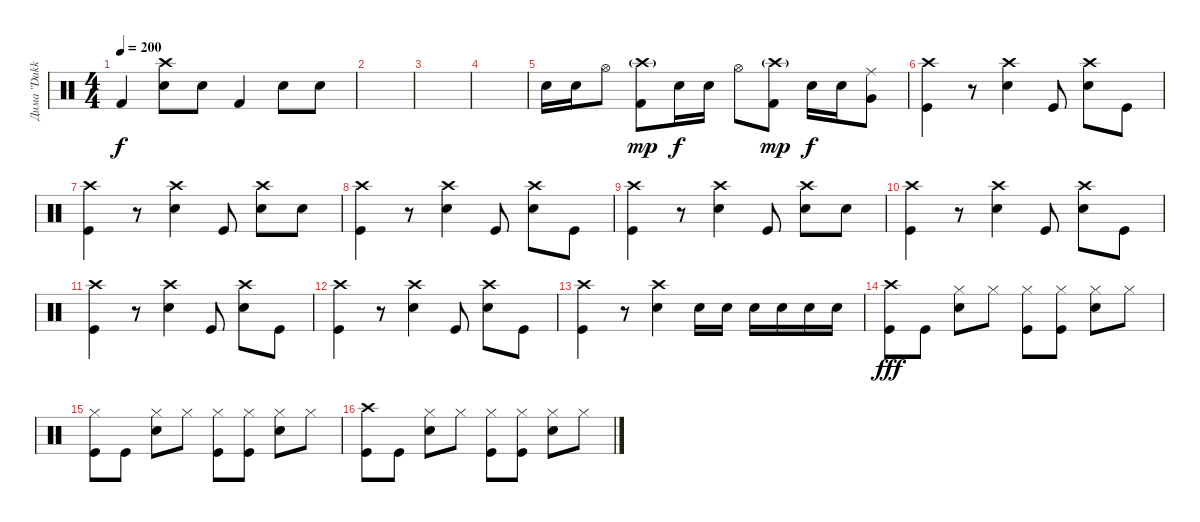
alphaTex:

\track ("Дима \"Dakkar\" Кеменов" "Дима \"Dakk") {instrument percussion}
\staff
\articulation defaults
\ts (4 4)
\tempo 200
\clef neutral
\ks c "Kick (hit) 2".4{dy f}
("Crash high (hit)" "Electric Snare (hit)").8 "Electric Snare (hit)".8 "Kick (hit) 2".4 "Electric Snare (hit)".8 "Electric Snare (hit)".8 |
|
|
|
"Electric Snare (hit)".16 "Electric Snare (hit)".16 "Hi-Hat (open)".8 ("Crash high (hit)"{g} "Kick (hit) 2").8{dy mp} "Electric Snare (hit)".16{dy f} "Electric Snare (hit)".16 "Hi-Hat (open)".8 ("Crash high (hit)"{g} "Kick (hit) 2").8{dy mp} "Electric Snare (hit)".16{dy f} "Electric Snare (hit)".16 ("Ride (middle)" "Very Low Tom (hit)").8 |
("Crash high (hit)" "Kick (hit)").4 r.8 ("Crash high (hit)" "Electric Snare (hit)").4 "Kick (hit)".8 ("Crash high (hit)" "Electric Snare (hit)").8 "Kick (hit)".8 |
("Crash high (hit)" "Kick (hit)").4 r.8 ("Crash high (hit)" "Electric Snare (hit)").4 "Kick (hit)".8 ("Crash high (hit)" "Electric Snare (hit)").8 "Electric Snare (hit)".8 |
("Crash high (hit)" "Kick (hit)").4 r.8 ("Crash high (hit)" "Electric Snare (hit)").4 "Kick (hit)".8 ("Crash high (hit)" "Electric Snare (hit)").8 "Kick (hit)".8 |
("Crash high (hit)" "Kick (hit)").4 r.8 ("Crash high (hit)" "Electric Snare (hit)").4 "Kick (hit)".8 ("Crash high (hit)" "Electric Snare (hit)").8 "Electric Snare (hit)".8 |
("Crash high (hit)" "Kick (hit)").4 r.8 ("Crash high (hit)" "Electric Snare (hit)").4 "Kick (hit)".8 ("Crash high (hit)" "Electric Snare (hit)").8 "Kick (hit)".8 |
("Crash high (hit)" "Kick (hit)").4 r.8 ("Crash high (hit)" "Electric Snare (hit)").4 "Kick (hit)".8 ("Crash high (hit)" "Electric Snare (hit)").8 "Kick (hit)".8 |
("Crash high (hit)" "Kick (hit)").4 r.8 ("Crash high (hit)" "Electric Snare (hit)").4 "Kick (hit)".8 ("Crash high (hit)" "Electric Snare (hit)").8 "Kick (hit)".8 |
("Crash high (hit)" "Kick (hit)").4 r.8 ("Crash high (hit)" "Electric Snare (hit)").4 "Electric Snare (hit)".16 "Electric Snare (hit)".16 "Electric Snare (hit)".16 "Electric Snare (hit)".16 "Electric Snare (hit)".16 "Electric Snare (hit)".16 |
("Crash high (hit)" "Kick (hit)").8{dy fff} "Kick (hit)".8 ("Hi-Hat (closed)" "Snare (hit) 2").8 "Hi-Hat (closed)".8 ("Hi-Hat (closed)" "Kick (hit)").8 ("Hi-Hat (closed)" "Kick (hit)").8 ("Hi-Hat (closed)" "Snare (hit) 2").8 "Hi-Hat (closed)".8 |
("Hi-Hat (closed)" "Kick (hit)").8 "Kick (hit)".8 ("Hi-Hat (closed)" "Snare (hit) 2").8 "Hi-Hat (closed)".8 ("Hi-Hat (closed)" "Kick (hit)").8 ("Hi-Hat (closed)" "Kick (hit)").8 ("Hi-Hat (closed)" "Snare (hit) 2").8 "Hi-Hat (closed)".8 |
("Crash high (hit)" "Kick (hit)").8 "Kick (hit)".8 ("Hi-Hat (closed)" "Snare (hit) 2").8 "Hi-Hat (closed)".8 ("Hi-Hat (closed)" "Kick (hit)").8 ("Hi-Hat (closed)" "Kick (hit)").8 ("Hi-Hat (closed)" "Snare (hit) 2").8 "Hi-Hat (closed)".8
